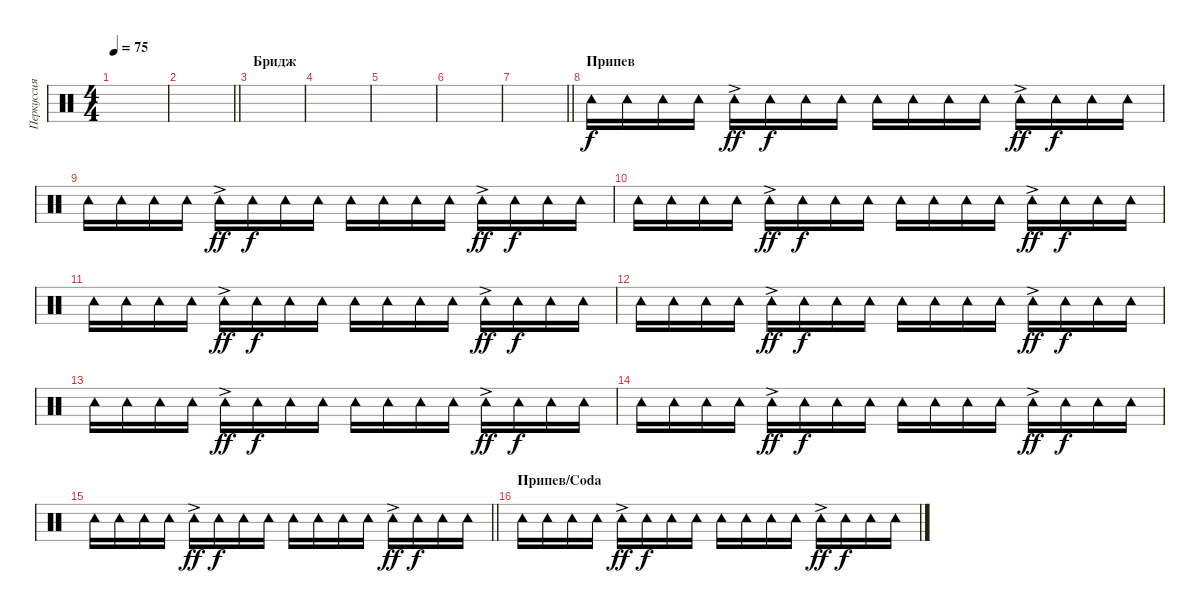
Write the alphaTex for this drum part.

\track ("Перкуссия" "Перкуссия") {instrument percussion}
\staff {score}
\articulation defaults
\ts (4 4)
\tempo 75
\clef neutral
\ks c
|
\barLineRight lightlight
|
\section ("" "Бридж")
|
|
|
|
\barLineRight lightlight
|
\section ("" "Припев")
"Tambourine (hit)".16{volume 5} "Tambourine (hit)".16 "Tambourine (hit)".16 "Tambourine (hit)".16 "Tambourine (hit)"{ac}.16{dy ff} "Tambourine (hit)".16{dy f} "Tambourine (hit)".16 "Tambourine (hit)".16 "Tambourine (hit)".16 "Tambourine (hit)".16 "Tambourine (hit)".16 "Tambourine (hit)".16 "Tambourine (hit)"{ac}.16{dy ff} "Tambourine (hit)".16{dy f} "Tambourine (hit)".16 "Tambourine (hit)".16 |
"Tambourine (hit)".16 "Tambourine (hit)".16 "Tambourine (hit)".16 "Tambourine (hit)".16 "Tambourine (hit)"{ac}.16{dy ff} "Tambourine (hit)".16{dy f} "Tambourine (hit)".16 "Tambourine (hit)".16 "Tambourine (hit)".16 "Tambourine (hit)".16 "Tambourine (hit)".16 "Tambourine (hit)".16 "Tambourine (hit)"{ac}.16{dy ff} "Tambourine (hit)".16{dy f} "Tambourine (hit)".16 "Tambourine (hit)".16 |
"Tambourine (hit)".16 "Tambourine (hit)".16 "Tambourine (hit)".16 "Tambourine (hit)".16 "Tambourine (hit)"{ac}.16{dy ff} "Tambourine (hit)".16{dy f} "Tambourine (hit)".16 "Tambourine (hit)".16 "Tambourine (hit)".16 "Tambourine (hit)".16 "Tambourine (hit)".16 "Tambourine (hit)".16 "Tambourine (hit)"{ac}.16{dy ff} "Tambourine (hit)".16{dy f} "Tambourine (hit)".16 "Tambourine (hit)".16 |
"Tambourine (hit)".16 "Tambourine (hit)".16 "Tambourine (hit)".16 "Tambourine (hit)".16 "Tambourine (hit)"{ac}.16{dy ff} "Tambourine (hit)".16{dy f} "Tambourine (hit)".16 "Tambourine (hit)".16 "Tambourine (hit)".16 "Tambourine (hit)".16 "Tambourine (hit)".16 "Tambourine (hit)".16 "Tambourine (hit)"{ac}.16{dy ff} "Tambourine (hit)".16{dy f} "Tambourine (hit)".16 "Tambourine (hit)".16 |
"Tambourine (hit)".16 "Tambourine (hit)".16 "Tambourine (hit)".16 "Tambourine (hit)".16 "Tambourine (hit)"{ac}.16{dy ff} "Tambourine (hit)".16{dy f} "Tambourine (hit)".16 "Tambourine (hit)".16 "Tambourine (hit)".16 "Tambourine (hit)".16 "Tambourine (hit)".16 "Tambourine (hit)".16 "Tambourine (hit)"{ac}.16{dy ff} "Tambourine (hit)".16{dy f} "Tambourine (hit)".16 "Tambourine (hit)".16 |
"Tambourine (hit)".16 "Tambourine (hit)".16 "Tambourine (hit)".16 "Tambourine (hit)".16 "Tambourine (hit)"{ac}.16{dy ff} "Tambourine (hit)".16{dy f} "Tambourine (hit)".16 "Tambourine (hit)".16 "Tambourine (hit)".16 "Tambourine (hit)".16 "Tambourine (hit)".16 "Tambourine (hit)".16 "Tambourine (hit)"{ac}.16{dy ff} "Tambourine (hit)".16{dy f} "Tambourine (hit)".16 "Tambourine (hit)".16 |
"Tambourine (hit)".16 "Tambourine (hit)".16 "Tambourine (hit)".16 "Tambourine (hit)".16 "Tambourine (hit)"{ac}.16{dy ff} "Tambourine (hit)".16{dy f} "Tambourine (hit)".16 "Tambourine (hit)".16 "Tambourine (hit)".16 "Tambourine (hit)".16 "Tambourine (hit)".16 "Tambourine (hit)".16 "Tambourine (hit)"{ac}.16{dy ff} "Tambourine (hit)".16{dy f} "Tambourine (hit)".16 "Tambourine (hit)".16 |
\barLineRight lightlight "Tambourine (hit)".16 "Tambourine (hit)".16 "Tambourine (hit)".16 "Tambourine (hit)".16 "Tambourine (hit)"{ac}.16{dy ff} "Tambourine (hit)".16{dy f} "Tambourine (hit)".16 "Tambourine (hit)".16 "Tambourine (hit)".16 "Tambourine (hit)".16 "Tambourine (hit)".16 "Tambourine (hit)".16 "Tambourine (hit)"{ac}.16{dy ff} "Tambourine (hit)".16{dy f} "Tambourine (hit)".16 "Tambourine (hit)".16
|
\section ("" "Припев/Coda")
"Tambourine (hit)".16{volume 5} "Tambourine (hit)".16 "Tambourine (hit)".16 "Tambourine (hit)".16 "Tambourine (hit)"{ac}.16{dy ff} "Tambourine (hit)".16{dy f} "Tambourine (hit)".16 "Tambourine (hit)".16 "Tambourine (hit)".16 "Tambourine (hit)".16 "Tambourine (hit)".16 "Tambourine (hit)".16 "Tambourine (hit)"{ac}.16{dy ff} "Tambourine (hit)".16{dy f} "Tambourine (hit)".16 "Tambourine (hit)".16
